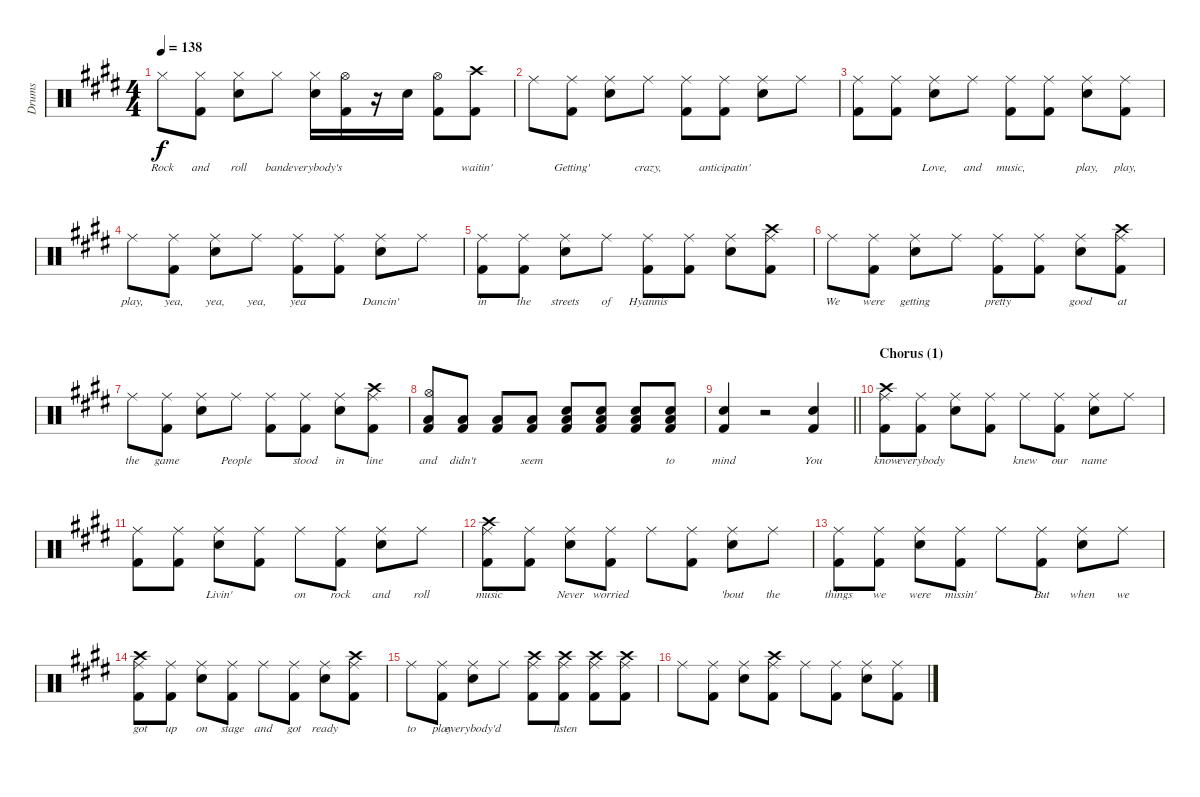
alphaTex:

\track ("Drums" "Drums") {instrument percussion}
\staff {score}
\articulation defaults
\ts (4 4)
\tempo 138
\clef neutral
\ks e "Hi-Hat (closed)".8{lyrics (0 "Rock") lyrics (1 "") lyrics (2 "") lyrics (3 "") lyrics (4 "") dy f}
("Kick (hit) 2" "Hi-Hat (closed)").8{lyrics (0 "and") lyrics (1 "") lyrics (2 "") lyrics (3 "") lyrics (4 "")} ("Snare (hit) 2" "Hi-Hat (closed)").8{lyrics (0 "roll") lyrics (1 "") lyrics (2 "") lyrics (3 "") lyrics (4 "")} "Hi-Hat (closed)".8{lyrics (0 "band") lyrics (1 "") lyrics (2 "") lyrics (3 "") lyrics (4 "")} ("Snare (hit) 2" "Hi-Hat (closed)").16{lyrics (0 "everybody's") lyrics (1 "") lyrics (2 "") lyrics (3 "") lyrics (4 "")} ("Hi-Hat (open)" "Kick (hit) 2").16{lyrics (0 "") lyrics (1 "") lyrics (2 "") lyrics (3 "") lyrics (4 "")} r.16 "Snare (hit) 2".16{lyrics (0 "") lyrics (1 "") lyrics (2 "") lyrics (3 "") lyrics (4 "")} ("Hi-Hat (open)" "Kick (hit) 2").8{lyrics (0 "") lyrics (1 "") lyrics (2 "") lyrics (3 "") lyrics (4 "")} ("Crash high (hit)" "Kick (hit) 2").8{lyrics (0 "waitin'") lyrics (1 "") lyrics (2 "") lyrics (3 "") lyrics (4 "")} |
"Ride (middle)".8{lyrics (0 "") lyrics (1 "") lyrics (2 "") lyrics (3 "") lyrics (4 "")} ("Kick (hit) 2" "Ride (middle)").8{lyrics (0 "Getting'") lyrics (1 "") lyrics (2 "") lyrics (3 "") lyrics (4 "")} ("Snare (hit) 2" "Ride (middle)").8{lyrics (0 "") lyrics (1 "") lyrics (2 "") lyrics (3 "") lyrics (4 "")} "Ride (middle)".8{lyrics (0 "crazy,") lyrics (1 "") lyrics (2 "") lyrics (3 "") lyrics (4 "")} ("Kick (hit) 2" "Ride (middle)").8{lyrics (0 "") lyrics (1 "") lyrics (2 "") lyrics (3 "") lyrics (4 "")} ("Kick (hit) 2" "Ride (middle)").8{lyrics (0 "anticipatin'") lyrics (1 "") lyrics (2 "") lyrics (3 "") lyrics (4 "")} ("Snare (hit) 2" "Ride (middle)").8{lyrics (0 "") lyrics (1 "") lyrics (2 "") lyrics (3 "") lyrics (4 "")} "Ride (middle)".8{lyrics (0 "") lyrics (1 "") lyrics (2 "") lyrics (3 "") lyrics (4 "")} |
("Kick (hit) 2" "Ride (middle)").8{lyrics (0 "") lyrics (1 "") lyrics (2 "") lyrics (3 "") lyrics (4 "")} ("Kick (hit) 2" "Ride (middle)").8{lyrics (0 "") lyrics (1 "") lyrics (2 "") lyrics (3 "") lyrics (4 "")} ("Snare (hit) 2" "Ride (middle)").8{lyrics (0 "Love,") lyrics (1 "") lyrics (2 "") lyrics (3 "") lyrics (4 "")} "Ride (middle)".8{lyrics (0 "and") lyrics (1 "") lyrics (2 "") lyrics (3 "") lyrics (4 "")} ("Kick (hit) 2" "Ride (middle)").8{lyrics (0 "music,") lyrics (1 "") lyrics (2 "") lyrics (3 "") lyrics (4 "")} ("Kick (hit) 2" "Ride (middle)").8{lyrics (0 "") lyrics (1 "") lyrics (2 "") lyrics (3 "") lyrics (4 "")} ("Snare (hit) 2" "Ride (middle)").8{lyrics (0 "play,") lyrics (1 "") lyrics (2 "") lyrics (3 "") lyrics (4 "")} ("Kick (hit) 2" "Ride (middle)").8{lyrics (0 "play,") lyrics (1 "") lyrics (2 "") lyrics (3 "") lyrics (4 "")} |
"Ride (middle)".8{lyrics (0 "play,") lyrics (1 "") lyrics (2 "") lyrics (3 "") lyrics (4 "")} ("Kick (hit) 2" "Ride (middle)").8{lyrics (0 "yea,") lyrics (1 "") lyrics (2 "") lyrics (3 "") lyrics (4 "")} ("Snare (hit) 2" "Ride (middle)").8{lyrics (0 "yea,") lyrics (1 "") lyrics (2 "") lyrics (3 "") lyrics (4 "")} "Ride (middle)".8{lyrics (0 "yea,") lyrics (1 "") lyrics (2 "") lyrics (3 "") lyrics (4 "")} ("Kick (hit) 2" "Ride (middle)").8{lyrics (0 "yea") lyrics (1 "") lyrics (2 "") lyrics (3 "") lyrics (4 "")} ("Kick (hit) 2" "Ride (middle)").8{lyrics (0 "") lyrics (1 "") lyrics (2 "") lyrics (3 "") lyrics (4 "")} ("Snare (hit) 2" "Ride (middle)").8{lyrics (0 "Dancin'") lyrics (1 "") lyrics (2 "") lyrics (3 "") lyrics (4 "")} "Ride (middle)".8{lyrics (0 "") lyrics (1 "") lyrics (2 "") lyrics (3 "") lyrics (4 "")} |
("Kick (hit) 2" "Ride (middle)").8{lyrics (0 "in") lyrics (1 "") lyrics (2 "") lyrics (3 "") lyrics (4 "")} ("Kick (hit) 2" "Ride (middle)").8{lyrics (0 "the") lyrics (1 "") lyrics (2 "") lyrics (3 "") lyrics (4 "")} ("Snare (hit) 2" "Ride (middle)").8{lyrics (0 "streets") lyrics (1 "") lyrics (2 "") lyrics (3 "") lyrics (4 "")} "Ride (middle)".8{lyrics (0 "of") lyrics (1 "") lyrics (2 "") lyrics (3 "") lyrics (4 "")} ("Kick (hit) 2" "Ride (middle)").8{lyrics (0 "Hyannis") lyrics (1 "") lyrics (2 "") lyrics (3 "") lyrics (4 "")} ("Kick (hit) 2" "Ride (middle)").8{lyrics (0 "") lyrics (1 "") lyrics (2 "") lyrics (3 "") lyrics (4 "")} ("Snare (hit) 2" "Ride (middle)").8{lyrics (0 "") lyrics (1 "") lyrics (2 "") lyrics (3 "") lyrics (4 "")} ("Crash high (hit)" "Kick (hit) 2" "Ride (middle)").8{lyrics (0 "") lyrics (1 "") lyrics (2 "") lyrics (3 "") lyrics (4 "")} |
"Ride (middle)".8{lyrics (0 "We") lyrics (1 "") lyrics (2 "") lyrics (3 "") lyrics (4 "")} ("Kick (hit) 2" "Ride (middle)").8{lyrics (0 "were") lyrics (1 "") lyrics (2 "") lyrics (3 "") lyrics (4 "")} ("Snare (hit) 2" "Ride (middle)").8{lyrics (0 "getting") lyrics (1 "") lyrics (2 "") lyrics (3 "") lyrics (4 "")} "Ride (middle)".8{lyrics (0 "") lyrics (1 "") lyrics (2 "") lyrics (3 "") lyrics (4 "")} ("Kick (hit) 2" "Ride (middle)").8{lyrics (0 "pretty") lyrics (1 "") lyrics (2 "") lyrics (3 "") lyrics (4 "")} ("Kick (hit) 2" "Ride (middle)").8{lyrics (0 "") lyrics (1 "") lyrics (2 "") lyrics (3 "") lyrics (4 "")} ("Snare (hit) 2" "Ride (middle)").8{lyrics (0 "good") lyrics (1 "") lyrics (2 "") lyrics (3 "") lyrics (4 "")} ("Crash high (hit)" "Kick (hit) 2" "Ride (middle)").8{lyrics (0 "at") lyrics (1 "") lyrics (2 "") lyrics (3 "") lyrics (4 "")} |
"Ride (middle)".8{lyrics (0 "the") lyrics (1 "") lyrics (2 "") lyrics (3 "") lyrics (4 "")} ("Kick (hit) 2" "Ride (middle)").8{lyrics (0 "game") lyrics (1 "") lyrics (2 "") lyrics (3 "") lyrics (4 "")} ("Snare (hit) 2" "Ride (middle)").8{lyrics (0 "") lyrics (1 "") lyrics (2 "") lyrics (3 "") lyrics (4 "")} "Ride (middle)".8{lyrics (0 "People") lyrics (1 "") lyrics (2 "") lyrics (3 "") lyrics (4 "")} ("Kick (hit) 2" "Ride (middle)").8{lyrics (0 "") lyrics (1 "") lyrics (2 "") lyrics (3 "") lyrics (4 "")} ("Kick (hit) 2" "Ride (middle)").8{lyrics (0 "stood") lyrics (1 "") lyrics (2 "") lyrics (3 "") lyrics (4 "")} ("Snare (hit) 2" "Ride (middle)").8{lyrics (0 "in") lyrics (1 "") lyrics (2 "") lyrics (3 "") lyrics (4 "")} ("Crash high (hit)" "Kick (hit) 2" "Ride (middle)").8{lyrics (0 "line") lyrics (1 "") lyrics (2 "") lyrics (3 "") lyrics (4 "")} |
("Hi-Hat (open)" "Low Floor Tom (hit)" "Kick (hit) 2").8{lyrics (0 "and") lyrics (1 "") lyrics (2 "") lyrics (3 "") lyrics (4 "")} ("Low Floor Tom (hit)" "Kick (hit) 2").8{lyrics (0 "didn't") lyrics (1 "") lyrics (2 "") lyrics (3 "") lyrics (4 "")} ("Low Floor Tom (hit)" "Kick (hit) 2").8{lyrics (0 "") lyrics (1 "") lyrics (2 "") lyrics (3 "") lyrics (4 "")} ("Low Floor Tom (hit)" "Kick (hit) 2").8{lyrics (0 "seem") lyrics (1 "") lyrics (2 "") lyrics (3 "") lyrics (4 "")} ("Low Floor Tom (hit)" "Kick (hit) 2" "Snare (hit) 2").8{lyrics (0 "") lyrics (1 "") lyrics (2 "") lyrics (3 "") lyrics (4 "")} ("Low Floor Tom (hit)" "Kick (hit) 2" "Snare (hit) 2").8{lyrics (0 "") lyrics (1 "") lyrics (2 "") lyrics (3 "") lyrics (4 "")} ("Low Floor Tom (hit)" "Kick (hit) 2" "Snare (hit) 2").8{lyrics (0 "") lyrics (1 "") lyrics (2 "") lyrics (3 "") lyrics (4 "")} ("Low Floor Tom (hit)" "Kick (hit) 2" "Snare (hit) 2").8{lyrics (0 "to") lyrics (1 "") lyrics (2 "") lyrics (3 "") lyrics (4 "")} |
\barLineRight lightlight
("Snare (hit) 2" "Kick (hit) 2").4{lyrics (0 "mind") lyrics (1 "") lyrics (2 "") lyrics (3 "") lyrics (4 "")} r.2 ("Snare (hit) 2" "Kick (hit) 2").4{lyrics (0 "You") lyrics (1 "") lyrics (2 "") lyrics (3 "") lyrics (4 "")} |
\section ("" "Chorus (1)")
("Crash high (hit)" "Kick (hit) 2" "Ride (middle)").8{lyrics (0 "know") lyrics (1 "") lyrics (2 "") lyrics (3 "") lyrics (4 "")} ("Kick (hit) 2" "Ride (middle)").8{lyrics (0 "everybody") lyrics (1 "") lyrics (2 "") lyrics (3 "") lyrics (4 "")} ("Snare (hit) 2" "Ride (middle)").8{lyrics (0 "") lyrics (1 "") lyrics (2 "") lyrics (3 "") lyrics (4 "")} ("Kick (hit) 2" "Ride (middle)").8{lyrics (0 "") lyrics (1 "") lyrics (2 "") lyrics (3 "") lyrics (4 "")} "Ride (middle)".8{lyrics (0 "knew") lyrics (1 "") lyrics (2 "") lyrics (3 "") lyrics (4 "")} ("Kick (hit) 2" "Ride (middle)").8{lyrics (0 "our") lyrics (1 "") lyrics (2 "") lyrics (3 "") lyrics (4 "")} ("Snare (hit) 2" "Ride (middle)").8{lyrics (0 "name") lyrics (1 "") lyrics (2 "") lyrics (3 "") lyrics (4 "")} "Ride (middle)".8{lyrics (0 "") lyrics (1 "") lyrics (2 "") lyrics (3 "") lyrics (4 "")} |
("Kick (hit) 2" "Ride (middle)").8{lyrics (0 "") lyrics (1 "") lyrics (2 "") lyrics (3 "") lyrics (4 "")} ("Kick (hit) 2" "Ride (middle)").8{lyrics (0 "") lyrics (1 "") lyrics (2 "") lyrics (3 "") lyrics (4 "")} ("Snare (hit) 2" "Ride (middle)").8{lyrics (0 "Livin'") lyrics (1 "") lyrics (2 "") lyrics (3 "") lyrics (4 "")} ("Kick (hit) 2" "Ride (middle)").8{lyrics (0 "") lyrics (1 "") lyrics (2 "") lyrics (3 "") lyrics (4 "")} "Ride (middle)".8{lyrics (0 "on") lyrics (1 "") lyrics (2 "") lyrics (3 "") lyrics (4 "")} ("Kick (hit) 2" "Ride (middle)").8{lyrics (0 "rock") lyrics (1 "") lyrics (2 "") lyrics (3 "") lyrics (4 "")} ("Snare (hit) 2" "Ride (middle)").8{lyrics (0 "and") lyrics (1 "") lyrics (2 "") lyrics (3 "") lyrics (4 "")} "Ride (middle)".8{lyrics (0 "roll") lyrics (1 "") lyrics (2 "") lyrics (3 "") lyrics (4 "")} |
("Crash high (hit)" "Kick (hit) 2" "Ride (middle)").8{lyrics (0 "music") lyrics (1 "") lyrics (2 "") lyrics (3 "") lyrics (4 "")} ("Kick (hit) 2" "Ride (middle)").8{lyrics (0 "") lyrics (1 "") lyrics (2 "") lyrics (3 "") lyrics (4 "")} ("Snare (hit) 2" "Ride (middle)").8{lyrics (0 "Never") lyrics (1 "") lyrics (2 "") lyrics (3 "") lyrics (4 "")} ("Kick (hit) 2" "Ride (middle)").8{lyrics (0 "worried") lyrics (1 "") lyrics (2 "") lyrics (3 "") lyrics (4 "")} "Ride (middle)".8{lyrics (0 "") lyrics (1 "") lyrics (2 "") lyrics (3 "") lyrics (4 "")} ("Kick (hit) 2" "Ride (middle)").8{lyrics (0 "") lyrics (1 "") lyrics (2 "") lyrics (3 "") lyrics (4 "")} ("Snare (hit) 2" "Ride (middle)").8{lyrics (0 "'bout") lyrics (1 "") lyrics (2 "") lyrics (3 "") lyrics (4 "")} "Ride (middle)".8{lyrics (0 "the") lyrics (1 "") lyrics (2 "") lyrics (3 "") lyrics (4 "")} |
("Kick (hit) 2" "Ride (middle)").8{lyrics (0 "things") lyrics (1 "") lyrics (2 "") lyrics (3 "") lyrics (4 "")} ("Kick (hit) 2" "Ride (middle)").8{lyrics (0 "we") lyrics (1 "") lyrics (2 "") lyrics (3 "") lyrics (4 "")} ("Snare (hit) 2" "Ride (middle)").8{lyrics (0 "were") lyrics (1 "") lyrics (2 "") lyrics (3 "") lyrics (4 "")} ("Kick (hit) 2" "Ride (middle)").8{lyrics (0 "missin'") lyrics (1 "") lyrics (2 "") lyrics (3 "") lyrics (4 "")} "Ride (middle)".8{lyrics (0 "") lyrics (1 "") lyrics (2 "") lyrics (3 "") lyrics (4 "")} ("Kick (hit) 2" "Ride (middle)").8{lyrics (0 "But") lyrics (1 "") lyrics (2 "") lyrics (3 "") lyrics (4 "")} ("Snare (hit) 2" "Ride (middle)").8{lyrics (0 "when") lyrics (1 "") lyrics (2 "") lyrics (3 "") lyrics (4 "")} "Ride (middle)".8{lyrics (0 "we") lyrics (1 "") lyrics (2 "") lyrics (3 "") lyrics (4 "")} |
("Crash high (hit)" "Kick (hit) 2" "Ride (middle)").8{lyrics (0 "got") lyrics (1 "") lyrics (2 "") lyrics (3 "") lyrics (4 "")} ("Kick (hit) 2" "Ride (middle)").8{lyrics (0 "up") lyrics (1 "") lyrics (2 "") lyrics (3 "") lyrics (4 "")} ("Snare (hit) 2" "Ride (middle)").8{lyrics (0 "on") lyrics (1 "") lyrics (2 "") lyrics (3 "") lyrics (4 "")} ("Kick (hit) 2" "Ride (middle)").8{lyrics (0 "stage") lyrics (1 "") lyrics (2 "") lyrics (3 "") lyrics (4 "")} "Ride (middle)".8{lyrics (0 "and") lyrics (1 "") lyrics (2 "") lyrics (3 "") lyrics (4 "")} ("Kick (hit) 2" "Ride (middle)").8{lyrics (0 "got") lyrics (1 "") lyrics (2 "") lyrics (3 "") lyrics (4 "")} ("Snare (hit) 2" "Ride (middle)").8{lyrics (0 "ready") lyrics (1 "") lyrics (2 "") lyrics (3 "") lyrics (4 "")} ("Crash high (hit)" "Kick (hit) 2" "Ride (middle)").8{lyrics (0 "") lyrics (1 "") lyrics (2 "") lyrics (3 "") lyrics (4 "")} |
"Ride (middle)".8{lyrics (0 "to") lyrics (1 "") lyrics (2 "") lyrics (3 "") lyrics (4 "")} ("Kick (hit) 2" "Ride (middle)").8{lyrics (0 "play") lyrics (1 "") lyrics (2 "") lyrics (3 "") lyrics (4 "")} ("Snare (hit) 2" "Ride (middle)").8{lyrics (0 "everybody'd") lyrics (1 "") lyrics (2 "") lyrics (3 "") lyrics (4 "")} "Ride (middle)".8{lyrics (0 "") lyrics (1 "") lyrics (2 "") lyrics (3 "") lyrics (4 "")} ("Crash high (hit)" "Kick (hit) 2" "Ride (middle)").8{lyrics (0 "") lyrics (1 "") lyrics (2 "") lyrics (3 "") lyrics (4 "")} ("Crash high (hit)" "Kick (hit) 2" "Ride (middle)").8{lyrics (0 "listen") lyrics (1 "") lyrics (2 "") lyrics (3 "") lyrics (4 "")} ("Crash high (hit)" "Kick (hit) 2" "Ride (middle)").8 ("Crash high (hit)" "Kick (hit) 2" "Ride (middle)").8 |
"Ride (middle)".8 ("Kick (hit) 2" "Ride (middle)").8 ("Snare (hit) 2" "Ride (middle)").8 ("Crash high (hit)" "Kick (hit) 2" "Ride (middle)").8 "Ride (middle)".8 ("Kick (hit) 2" "Ride (middle)").8 ("Snare (hit) 2" "Ride (middle)").8 ("Kick (hit) 2" "Ride (middle)").8
